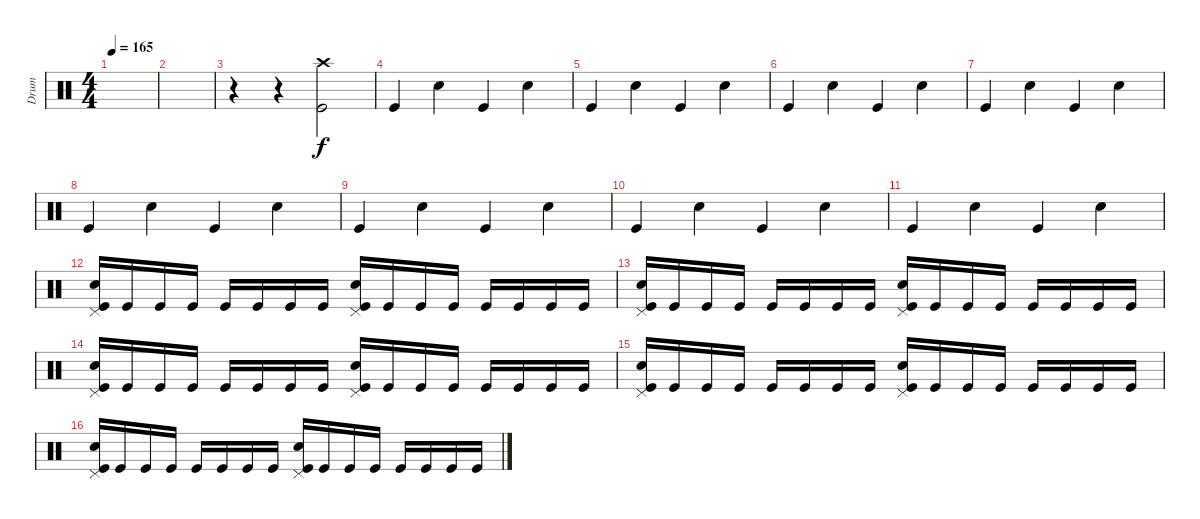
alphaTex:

\track ("Drum" "Drum") {instrument percussion}
\staff {score}
\articulation defaults
\ts (4 4)
\tempo 165
\clef neutral
\ks c
|
|
r.4 r.4 ("Kick (hit)" "Crash high (hit)").2 |
"Kick (hit)".4 "Electric Snare (hit)".4 "Kick (hit)".4 "Electric Snare (hit)".4 |
"Kick (hit)".4 "Electric Snare (hit)".4 "Kick (hit)".4 "Electric Snare (hit)".4 |
"Kick (hit)".4 "Electric Snare (hit)".4 "Kick (hit)".4 "Electric Snare (hit)".4 |
"Kick (hit)".4 "Electric Snare (hit)".4 "Kick (hit)".4 "Electric Snare (hit)".4 |
"Kick (hit)".4 "Electric Snare (hit)".4 "Kick (hit)".4 "Electric Snare (hit)".4 |
"Kick (hit)".4 "Electric Snare (hit)".4 "Kick (hit)".4 "Electric Snare (hit)".4 |
"Kick (hit)".4 "Electric Snare (hit)".4 "Kick (hit)".4 "Electric Snare (hit)".4 |
"Kick (hit)".4 "Electric Snare (hit)".4 "Kick (hit)".4 "Electric Snare (hit)".4 |
("Pedal Hi-Hat (hit)" "Electric Snare (hit)" "Kick (hit)").16 "Kick (hit)".16 "Kick (hit)".16 "Kick (hit)".16 "Kick (hit)".16 "Kick (hit)".16 "Kick (hit)".16 "Kick (hit)".16 ("Pedal Hi-Hat (hit)" "Electric Snare (hit)" "Kick (hit)").16 "Kick (hit)".16 "Kick (hit)".16 "Kick (hit)".16 "Kick (hit)".16 "Kick (hit)".16 "Kick (hit)".16 "Kick (hit)".16 |
("Pedal Hi-Hat (hit)" "Electric Snare (hit)" "Kick (hit)").16 "Kick (hit)".16 "Kick (hit)".16 "Kick (hit)".16 "Kick (hit)".16 "Kick (hit)".16 "Kick (hit)".16 "Kick (hit)".16 ("Pedal Hi-Hat (hit)" "Electric Snare (hit)" "Kick (hit)").16 "Kick (hit)".16 "Kick (hit)".16 "Kick (hit)".16 "Kick (hit)".16 "Kick (hit)".16 "Kick (hit)".16 "Kick (hit)".16 |
("Pedal Hi-Hat (hit)" "Electric Snare (hit)" "Kick (hit)").16 "Kick (hit)".16 "Kick (hit)".16 "Kick (hit)".16 "Kick (hit)".16 "Kick (hit)".16 "Kick (hit)".16 "Kick (hit)".16 ("Pedal Hi-Hat (hit)" "Electric Snare (hit)" "Kick (hit)").16 "Kick (hit)".16 "Kick (hit)".16 "Kick (hit)".16 "Kick (hit)".16 "Kick (hit)".16 "Kick (hit)".16 "Kick (hit)".16 |
("Pedal Hi-Hat (hit)" "Electric Snare (hit)" "Kick (hit)").16 "Kick (hit)".16 "Kick (hit)".16 "Kick (hit)".16 "Kick (hit)".16 "Kick (hit)".16 "Kick (hit)".16 "Kick (hit)".16 ("Pedal Hi-Hat (hit)" "Electric Snare (hit)" "Kick (hit)").16 "Kick (hit)".16 "Kick (hit)".16 "Kick (hit)".16 "Kick (hit)".16 "Kick (hit)".16 "Kick (hit)".16 "Kick (hit)".16 |
("Pedal Hi-Hat (hit)" "Electric Snare (hit)" "Kick (hit)").16 "Kick (hit)".16 "Kick (hit)".16 "Kick (hit)".16 "Kick (hit)".16 "Kick (hit)".16 "Kick (hit)".16 "Kick (hit)".16 ("Pedal Hi-Hat (hit)" "Electric Snare (hit)" "Kick (hit)").16 "Kick (hit)".16 "Kick (hit)".16 "Kick (hit)".16 "Kick (hit)".16 "Kick (hit)".16 "Kick (hit)".16 "Kick (hit)".16
